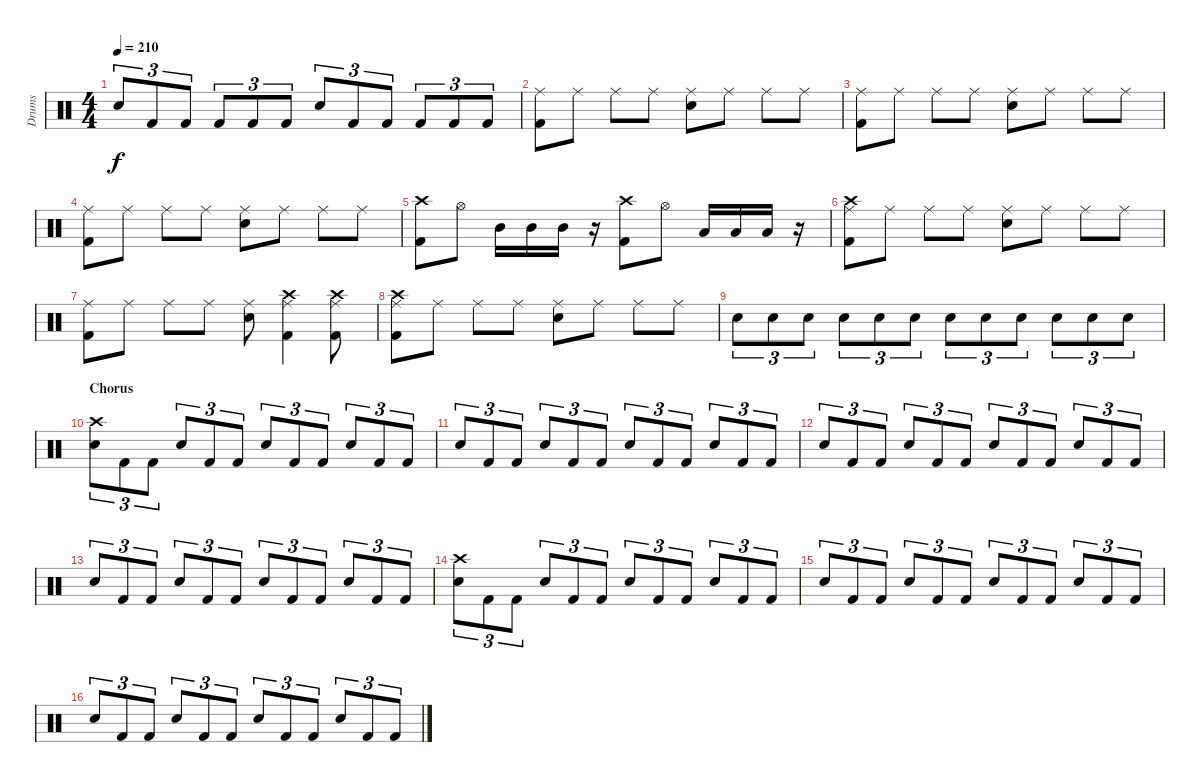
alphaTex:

\track ("Drums" "Drums") {instrument percussion}
\staff {score}
\articulation defaults
\ts (4 4)
\tempo 210
\clef neutral
\ks c "Electric Snare (hit)".8{tu (3 2) dy f} "Kick (hit) 2".8{tu (3 2)} "Kick (hit) 2".8{tu (3 2)} "Kick (hit) 2".8{tu (3 2)} "Kick (hit) 2".8{tu (3 2)} "Kick (hit) 2".8{tu (3 2)} "Electric Snare (hit)".8{tu (3 2)} "Kick (hit) 2".8{tu (3 2)} "Kick (hit) 2".8{tu (3 2)} "Kick (hit) 2".8{tu (3 2)} "Kick (hit) 2".8{tu (3 2)} "Kick (hit) 2".8{tu (3 2)}
|
("Ride (middle)" "Kick (hit) 2").8 "Ride (middle)".8 "Ride (middle)".8 "Ride (middle)".8 ("Ride (middle)" "Electric Snare (hit)").8 "Ride (middle)".8 "Ride (middle)".8 "Ride (middle)".8 |
("Ride (middle)" "Kick (hit) 2").8 "Ride (middle)".8 "Ride (middle)".8 "Ride (middle)".8 ("Ride (middle)" "Electric Snare (hit)").8 "Ride (middle)".8 "Ride (middle)".8 "Ride (middle)".8 |
("Ride (middle)" "Kick (hit) 2").8 "Ride (middle)".8 "Ride (middle)".8 "Ride (middle)".8 ("Ride (middle)" "Electric Snare (hit)").8 "Ride (middle)".8 "Ride (middle)".8 "Ride (middle)".8 |
("Crash high (hit)" "Kick (hit) 2").8 "Hi-Hat (open)".8 "Mid Tom (hit)".16 "Mid Tom (hit)".16 "Mid Tom (hit)".16 r.16 ("Crash high (hit)" "Kick (hit) 2").8 "Hi-Hat (open)".8 "Low Tom (hit)".16 "Low Tom (hit)".16 "Low Floor Tom (hit)".16 r.16 |
("Crash high (hit)" "Ride (middle)" "Kick (hit) 2").8 "Ride (middle)".8 "Ride (middle)".8 "Ride (middle)".8 ("Ride (middle)" "Electric Snare (hit)").8 "Ride (middle)".8 "Ride (middle)".8 "Ride (middle)".8 |
("Ride (middle)" "Kick (hit) 2").8 "Ride (middle)".8 "Ride (middle)".8 "Ride (middle)".8 ("Ride (middle)" "Electric Snare (hit)").8 ("Crash high (hit)" "Ride (middle)" "Kick (hit) 2").4 ("Crash high (hit)" "Ride (middle)" "Kick (hit) 2").8 |
("Crash high (hit)" "Ride (middle)" "Kick (hit) 2").8 "Ride (middle)".8 "Ride (middle)".8 "Ride (middle)".8 ("Ride (middle)" "Electric Snare (hit)").8 "Ride (middle)".8 "Ride (middle)".8 "Ride (middle)".8 |
"Electric Snare (hit)".8{tu (3 2)} "Electric Snare (hit)".8{tu (3 2)} "Electric Snare (hit)".8{tu (3 2)} "Electric Snare (hit)".8{tu (3 2)} "Electric Snare (hit)".8{tu (3 2)} "Electric Snare (hit)".8{tu (3 2)} "Electric Snare (hit)".8{tu (3 2)} "Electric Snare (hit)".8{tu (3 2)} "Electric Snare (hit)".8{tu (3 2)} "Electric Snare (hit)".8{tu (3 2)} "Electric Snare (hit)".8{tu (3 2)} "Electric Snare (hit)".8{tu (3 2)} |
\section ("" "Chorus")
("Crash high (hit)" "Electric Snare (hit)").8{tu (3 2)} "Kick (hit) 2".8{tu (3 2)} "Kick (hit) 2".8{tu (3 2)} "Electric Snare (hit)".8{tu (3 2)} "Kick (hit) 2".8{tu (3 2)} "Kick (hit) 2".8{tu (3 2)} "Electric Snare (hit)".8{tu (3 2)} "Kick (hit) 2".8{tu (3 2)} "Kick (hit) 2".8{tu (3 2)} "Electric Snare (hit)".8{tu (3 2)} "Kick (hit) 2".8{tu (3 2)} "Kick (hit) 2".8{tu (3 2)} |
"Electric Snare (hit)".8{tu (3 2)} "Kick (hit) 2".8{tu (3 2)} "Kick (hit) 2".8{tu (3 2)} "Electric Snare (hit)".8{tu (3 2)} "Kick (hit) 2".8{tu (3 2)} "Kick (hit) 2".8{tu (3 2)} "Electric Snare (hit)".8{tu (3 2)} "Kick (hit) 2".8{tu (3 2)} "Kick (hit) 2".8{tu (3 2)} "Electric Snare (hit)".8{tu (3 2)} "Kick (hit) 2".8{tu (3 2)} "Kick (hit) 2".8{tu (3 2)} |
"Electric Snare (hit)".8{tu (3 2)} "Kick (hit) 2".8{tu (3 2)} "Kick (hit) 2".8{tu (3 2)} "Electric Snare (hit)".8{tu (3 2)} "Kick (hit) 2".8{tu (3 2)} "Kick (hit) 2".8{tu (3 2)} "Electric Snare (hit)".8{tu (3 2)} "Kick (hit) 2".8{tu (3 2)} "Kick (hit) 2".8{tu (3 2)} "Electric Snare (hit)".8{tu (3 2)} "Kick (hit) 2".8{tu (3 2)} "Kick (hit) 2".8{tu (3 2)} |
"Electric Snare (hit)".8{tu (3 2)} "Kick (hit) 2".8{tu (3 2)} "Kick (hit) 2".8{tu (3 2)} "Electric Snare (hit)".8{tu (3 2)} "Kick (hit) 2".8{tu (3 2)} "Kick (hit) 2".8{tu (3 2)} "Electric Snare (hit)".8{tu (3 2)} "Kick (hit) 2".8{tu (3 2)} "Kick (hit) 2".8{tu (3 2)} "Electric Snare (hit)".8{tu (3 2)} "Kick (hit) 2".8{tu (3 2)} "Kick (hit) 2".8{tu (3 2)} |
("Crash high (hit)" "Electric Snare (hit)").8{tu (3 2)} "Kick (hit) 2".8{tu (3 2)} "Kick (hit) 2".8{tu (3 2)} "Electric Snare (hit)".8{tu (3 2)} "Kick (hit) 2".8{tu (3 2)} "Kick (hit) 2".8{tu (3 2)} "Electric Snare (hit)".8{tu (3 2)} "Kick (hit) 2".8{tu (3 2)} "Kick (hit) 2".8{tu (3 2)} "Electric Snare (hit)".8{tu (3 2)} "Kick (hit) 2".8{tu (3 2)} "Kick (hit) 2".8{tu (3 2)} |
"Electric Snare (hit)".8{tu (3 2)} "Kick (hit) 2".8{tu (3 2)} "Kick (hit) 2".8{tu (3 2)} "Electric Snare (hit)".8{tu (3 2)} "Kick (hit) 2".8{tu (3 2)} "Kick (hit) 2".8{tu (3 2)} "Electric Snare (hit)".8{tu (3 2)} "Kick (hit) 2".8{tu (3 2)} "Kick (hit) 2".8{tu (3 2)} "Electric Snare (hit)".8{tu (3 2)} "Kick (hit) 2".8{tu (3 2)} "Kick (hit) 2".8{tu (3 2)} |
"Electric Snare (hit)".8{tu (3 2)} "Kick (hit) 2".8{tu (3 2)} "Kick (hit) 2".8{tu (3 2)} "Electric Snare (hit)".8{tu (3 2)} "Kick (hit) 2".8{tu (3 2)} "Kick (hit) 2".8{tu (3 2)} "Electric Snare (hit)".8{tu (3 2)} "Kick (hit) 2".8{tu (3 2)} "Kick (hit) 2".8{tu (3 2)} "Electric Snare (hit)".8{tu (3 2)} "Kick (hit) 2".8{tu (3 2)} "Kick (hit) 2".8{tu (3 2)}
